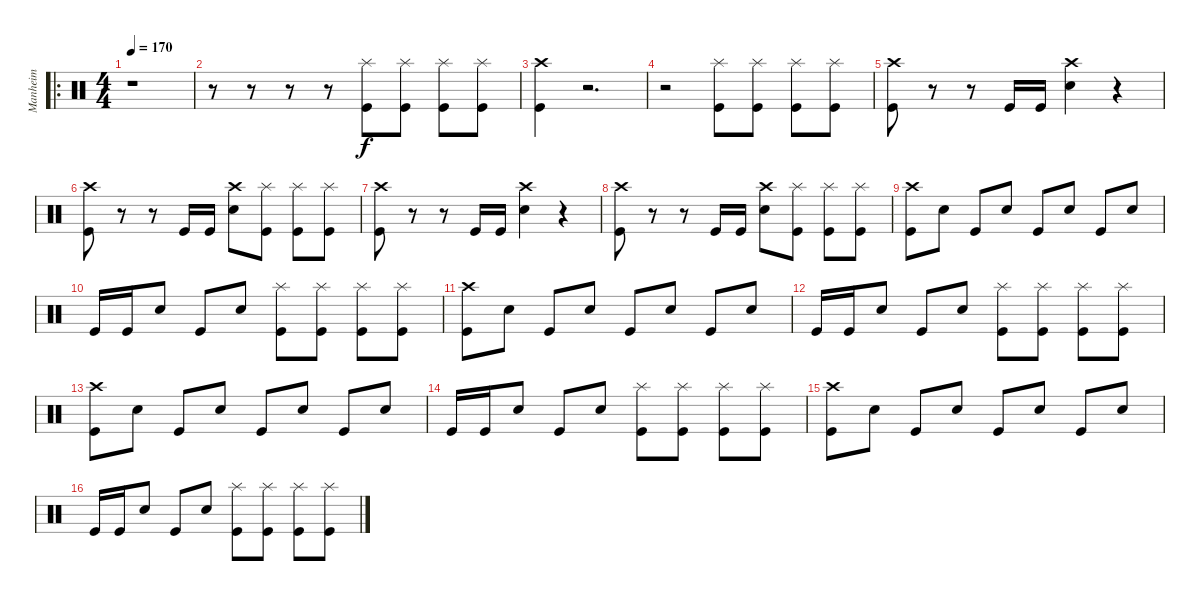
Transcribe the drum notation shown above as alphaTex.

\track ("Manheim" "Manheim") {instrument percussion}
\staff {score}
\articulation defaults
\ro
\ts (4 4)
\tempo 170
\clef neutral
\ks c
r.1{dy f} |
r.8 r.8 r.8 r.8 ("Splash (hit)" "Kick (hit)").8 ("Splash (hit)" "Kick (hit)").8 ("Splash (hit)" "Kick (hit)").8 ("Splash (hit)" "Kick (hit)").8 |
("Crash high (hit)" "Kick (hit)").4 r.2{d} |
r.2 ("Splash (hit)" "Kick (hit)").8 ("Splash (hit)" "Kick (hit)").8 ("Splash (hit)" "Kick (hit)").8 ("Splash (hit)" "Kick (hit)").8 |
("Crash high (hit)" "Kick (hit)").8 r.8 r.8 "Kick (hit)".16 "Kick (hit)".16 ("Crash high (hit)" "Electric Snare (hit)").4 r.4 |
("Crash high (hit)" "Kick (hit)").8 r.8 r.8 "Kick (hit)".16 "Kick (hit)".16 ("Crash high (hit)" "Electric Snare (hit)").8 ("Splash (hit)" "Kick (hit)").8 ("Splash (hit)" "Kick (hit)").8 ("Splash (hit)" "Kick (hit)").8 |
("Crash high (hit)" "Kick (hit)").8 r.8 r.8 "Kick (hit)".16 "Kick (hit)".16 ("Crash high (hit)" "Electric Snare (hit)").4 r.4 |
("Crash high (hit)" "Kick (hit)").8 r.8 r.8 "Kick (hit)".16 "Kick (hit)".16 ("Crash high (hit)" "Electric Snare (hit)").8 ("Splash (hit)" "Kick (hit)").8 ("Splash (hit)" "Kick (hit)").8 ("Splash (hit)" "Kick (hit)").8 |
("Crash high (hit)" "Kick (hit)").8 "Electric Snare (hit)".8 "Kick (hit)".8 "Electric Snare (hit)".8 "Kick (hit)".8 "Electric Snare (hit)".8 "Kick (hit)".8 "Electric Snare (hit)".8 |
"Kick (hit)".16 "Kick (hit)".16 "Electric Snare (hit)".8 "Kick (hit)".8 "Electric Snare (hit)".8 ("Splash (hit)" "Kick (hit)").8 ("Splash (hit)" "Kick (hit)").8 ("Splash (hit)" "Kick (hit)").8 ("Splash (hit)" "Kick (hit)").8 |
("Crash high (hit)" "Kick (hit)").8 "Electric Snare (hit)".8 "Kick (hit)".8 "Electric Snare (hit)".8 "Kick (hit)".8 "Electric Snare (hit)".8 "Kick (hit)".8 "Electric Snare (hit)".8 |
"Kick (hit)".16 "Kick (hit)".16 "Electric Snare (hit)".8 "Kick (hit)".8 "Electric Snare (hit)".8 ("Splash (hit)" "Kick (hit)").8 ("Splash (hit)" "Kick (hit)").8 ("Splash (hit)" "Kick (hit)").8 ("Splash (hit)" "Kick (hit)").8 |
("Crash high (hit)" "Kick (hit)").8 "Electric Snare (hit)".8 "Kick (hit)".8 "Electric Snare (hit)".8 "Kick (hit)".8 "Electric Snare (hit)".8 "Kick (hit)".8 "Electric Snare (hit)".8 |
"Kick (hit)".16 "Kick (hit)".16 "Electric Snare (hit)".8 "Kick (hit)".8 "Electric Snare (hit)".8 ("Splash (hit)" "Kick (hit)").8 ("Splash (hit)" "Kick (hit)").8 ("Splash (hit)" "Kick (hit)").8 ("Splash (hit)" "Kick (hit)").8 |
("Crash high (hit)" "Kick (hit)").8 "Electric Snare (hit)".8 "Kick (hit)".8 "Electric Snare (hit)".8 "Kick (hit)".8 "Electric Snare (hit)".8 "Kick (hit)".8 "Electric Snare (hit)".8 |
"Kick (hit)".16 "Kick (hit)".16 "Electric Snare (hit)".8 "Kick (hit)".8 "Electric Snare (hit)".8 ("Splash (hit)" "Kick (hit)").8 ("Splash (hit)" "Kick (hit)").8 ("Splash (hit)" "Kick (hit)").8 ("Splash (hit)" "Kick (hit)").8
